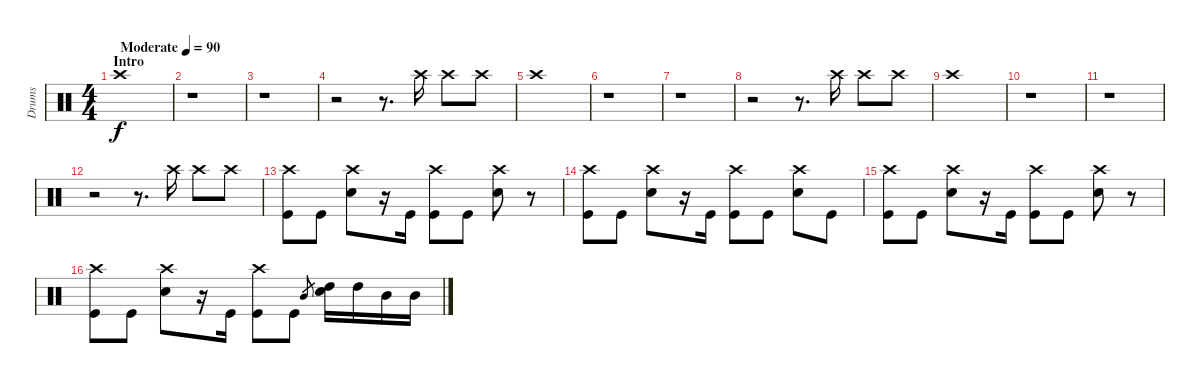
\track ("Drums" "Drums") {instrument percussion}
\staff {score}
\articulation defaults
\ts (4 4)
\section ("" "Intro ")
\tempo (90 "Moderate")
\clef neutral
\ks c "Crash high (hit)".1{dy f}
|
r.1 |
r.1 |
r.2 r.8{d} "Crash high (hit)".16 "Crash high (hit)".8 "Crash high (hit)".8 |
"Crash high (hit)".1 |
r.1 |
r.1 |
r.2 r.8{d} "Crash high (hit)".16 "Crash high (hit)".8 "Crash high (hit)".8 |
"Crash high (hit)".1 |
r.1 |
r.1 |
r.2 r.8{d} "Crash high (hit)".16 "Crash high (hit)".8 "Crash high (hit)".8 |
("Crash high (hit)" "Kick (hit)").8 "Kick (hit)".8 ("Crash high (hit)" "Electric Snare (hit)").8 r.16 "Kick (hit)".16 ("Crash high (hit)" "Kick (hit)").8 "Kick (hit)".8 ("Crash high (hit)" "Electric Snare (hit)").8 r.8 |
("Crash high (hit)" "Kick (hit)").8 "Kick (hit)".8 ("Crash high (hit)" "Electric Snare (hit)").8 r.16 "Kick (hit)".16 ("Crash high (hit)" "Kick (hit)").8 "Kick (hit)".8 ("Crash high (hit)" "Electric Snare (hit)").8 "Kick (hit)".8 |
("Crash high (hit)" "Kick (hit)").8 "Kick (hit)".8 ("Crash high (hit)" "Electric Snare (hit)").8 r.16 "Kick (hit)".16 ("Crash high (hit)" "Kick (hit)").8 "Kick (hit)".8 ("Crash high (hit)" "Electric Snare (hit)").8 r.8 |
("Crash high (hit)" "Kick (hit)").8 "Kick (hit)".8 ("Crash high (hit)" "Electric Snare (hit)").8 r.16 "Kick (hit)".16 ("Crash high (hit)" "Kick (hit)").8 "Kick (hit)".8 "Mid Tom (hit)".8{gr} ("High Tom (hit)" "Electric Snare (hit)").16 "High Tom (hit)".16 "Mid Tom (hit)".16 "Mid Tom (hit)".16
